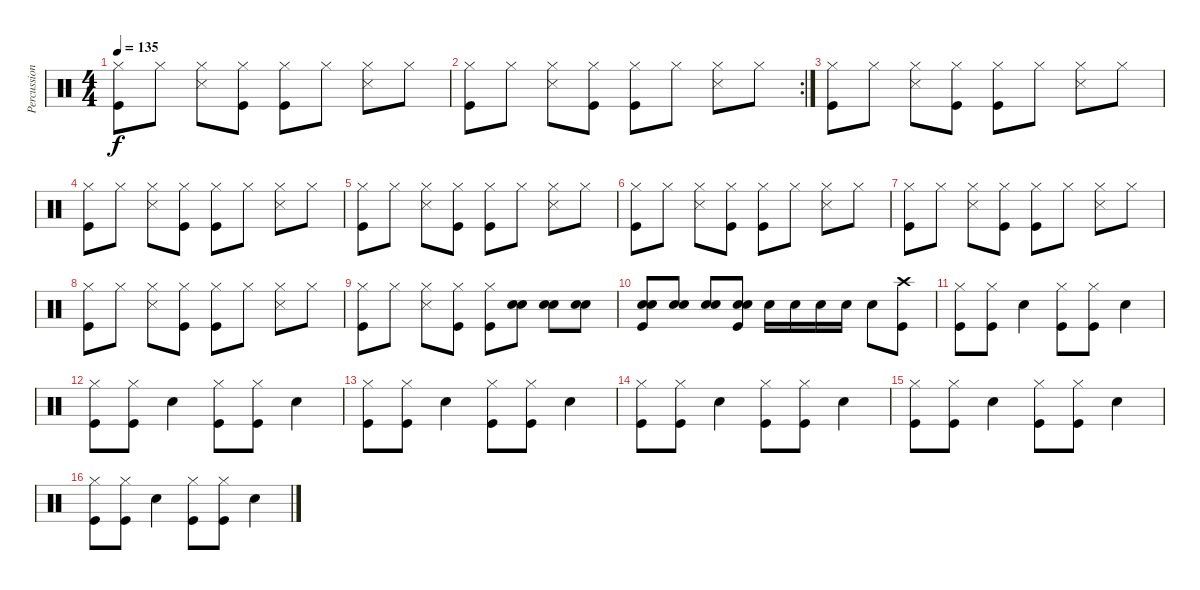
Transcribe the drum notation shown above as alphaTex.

\track ("Percussion" "Percussion") {instrument percussion}
\staff {score}
\articulation defaults
\ts (4 4)
\tempo 135
\clef neutral
\ks c
("Hi-Hat (closed)" "Kick (hit)").8{dy f} "Hi-Hat (closed)".8 ("Hi-Hat (closed)" "Snare (side stick) 3").8 ("Hi-Hat (closed)" "Kick (hit)").8 ("Hi-Hat (closed)" "Kick (hit)").8 "Hi-Hat (closed)".8 ("Hi-Hat (closed)" "Snare (side stick) 3").8 "Hi-Hat (closed)".8 |
\rc 2
("Hi-Hat (closed)" "Kick (hit)").8 "Hi-Hat (closed)".8 ("Hi-Hat (closed)" "Snare (side stick) 3").8 ("Hi-Hat (closed)" "Kick (hit)").8 ("Hi-Hat (closed)" "Kick (hit)").8 "Hi-Hat (closed)".8 ("Hi-Hat (closed)" "Snare (side stick) 3").8 "Hi-Hat (closed)".8 |
("Hi-Hat (closed)" "Kick (hit)").8 "Hi-Hat (closed)".8 ("Hi-Hat (closed)" "Snare (side stick) 3").8 ("Hi-Hat (closed)" "Kick (hit)").8 ("Hi-Hat (closed)" "Kick (hit)").8 "Hi-Hat (closed)".8 ("Hi-Hat (closed)" "Snare (side stick) 3").8 "Hi-Hat (closed)".8 |
("Hi-Hat (closed)" "Kick (hit)").8 "Hi-Hat (closed)".8 ("Hi-Hat (closed)" "Snare (side stick) 3").8 ("Hi-Hat (closed)" "Kick (hit)").8 ("Hi-Hat (closed)" "Kick (hit)").8 "Hi-Hat (closed)".8 ("Hi-Hat (closed)" "Snare (side stick) 3").8 "Hi-Hat (closed)".8 |
("Hi-Hat (closed)" "Kick (hit)").8 "Hi-Hat (closed)".8 ("Hi-Hat (closed)" "Snare (side stick) 3").8 ("Hi-Hat (closed)" "Kick (hit)").8 ("Hi-Hat (closed)" "Kick (hit)").8 "Hi-Hat (closed)".8 ("Hi-Hat (closed)" "Snare (side stick) 3").8 "Hi-Hat (closed)".8 |
("Hi-Hat (closed)" "Kick (hit)").8 "Hi-Hat (closed)".8 ("Hi-Hat (closed)" "Snare (side stick) 3").8 ("Hi-Hat (closed)" "Kick (hit)").8 ("Hi-Hat (closed)" "Kick (hit)").8 "Hi-Hat (closed)".8 ("Hi-Hat (closed)" "Snare (side stick) 3").8 "Hi-Hat (closed)".8 |
("Hi-Hat (closed)" "Kick (hit)").8 "Hi-Hat (closed)".8 ("Hi-Hat (closed)" "Snare (side stick) 3").8 ("Hi-Hat (closed)" "Kick (hit)").8 ("Hi-Hat (closed)" "Kick (hit)").8 "Hi-Hat (closed)".8 ("Hi-Hat (closed)" "Snare (side stick) 3").8 "Hi-Hat (closed)".8 |
("Hi-Hat (closed)" "Kick (hit)").8 "Hi-Hat (closed)".8 ("Hi-Hat (closed)" "Snare (side stick) 3").8 ("Hi-Hat (closed)" "Kick (hit)").8 ("Hi-Hat (closed)" "Kick (hit)").8 "Hi-Hat (closed)".8 ("Hi-Hat (closed)" "Snare (side stick) 3").8 "Hi-Hat (closed)".8 |
("Hi-Hat (closed)" "Kick (hit)").8 "Hi-Hat (closed)".8 ("Hi-Hat (closed)" "Snare (side stick) 3").8 ("Hi-Hat (closed)" "Kick (hit)").8 ("Hi-Hat (closed)" "Kick (hit)").8 ("Snare (hit) 2" "Snare (hit) 2").8 ("Snare (hit) 2" "Snare (hit) 2").8 ("Snare (hit) 2" "Snare (hit) 2").8 |
("Snare (hit) 2" "Snare (hit) 2" "Kick (hit)").8 ("Snare (hit) 2" "Snare (hit) 2").8 ("Snare (hit) 2" "Snare (hit) 2").8 ("Snare (hit) 2" "Snare (hit) 2" "Kick (hit)").8 "Snare (hit) 2".16 "Snare (hit) 2".16 "Snare (hit) 2".16 "Snare (hit) 2".16 "Electric Snare (hit)".8 ("Crash high (hit)" "Kick (hit)").8 |
("Hi-Hat (closed)" "Kick (hit)").8 ("Hi-Hat (closed)" "Kick (hit)").8 "Electric Snare (hit)".4 ("Hi-Hat (closed)" "Kick (hit)").8 ("Hi-Hat (closed)" "Kick (hit)").8 "Electric Snare (hit)".4 |
("Hi-Hat (closed)" "Kick (hit)").8 ("Hi-Hat (closed)" "Kick (hit)").8 "Electric Snare (hit)".4 ("Hi-Hat (closed)" "Kick (hit)").8 ("Hi-Hat (closed)" "Kick (hit)").8 "Electric Snare (hit)".4 |
("Hi-Hat (closed)" "Kick (hit)").8 ("Hi-Hat (closed)" "Kick (hit)").8 "Electric Snare (hit)".4 ("Hi-Hat (closed)" "Kick (hit)").8 ("Hi-Hat (closed)" "Kick (hit)").8 "Electric Snare (hit)".4 |
("Hi-Hat (closed)" "Kick (hit)").8 ("Hi-Hat (closed)" "Kick (hit)").8 "Electric Snare (hit)".4 ("Hi-Hat (closed)" "Kick (hit)").8 ("Hi-Hat (closed)" "Kick (hit)").8 "Electric Snare (hit)".4 |
("Hi-Hat (closed)" "Kick (hit)").8 ("Hi-Hat (closed)" "Kick (hit)").8 "Electric Snare (hit)".4 ("Hi-Hat (closed)" "Kick (hit)").8 ("Hi-Hat (closed)" "Kick (hit)").8 "Electric Snare (hit)".4 |
("Hi-Hat (closed)" "Kick (hit)").8 ("Hi-Hat (closed)" "Kick (hit)").8 "Electric Snare (hit)".4 ("Hi-Hat (closed)" "Kick (hit)").8 ("Hi-Hat (closed)" "Kick (hit)").8 "Electric Snare (hit)".4
